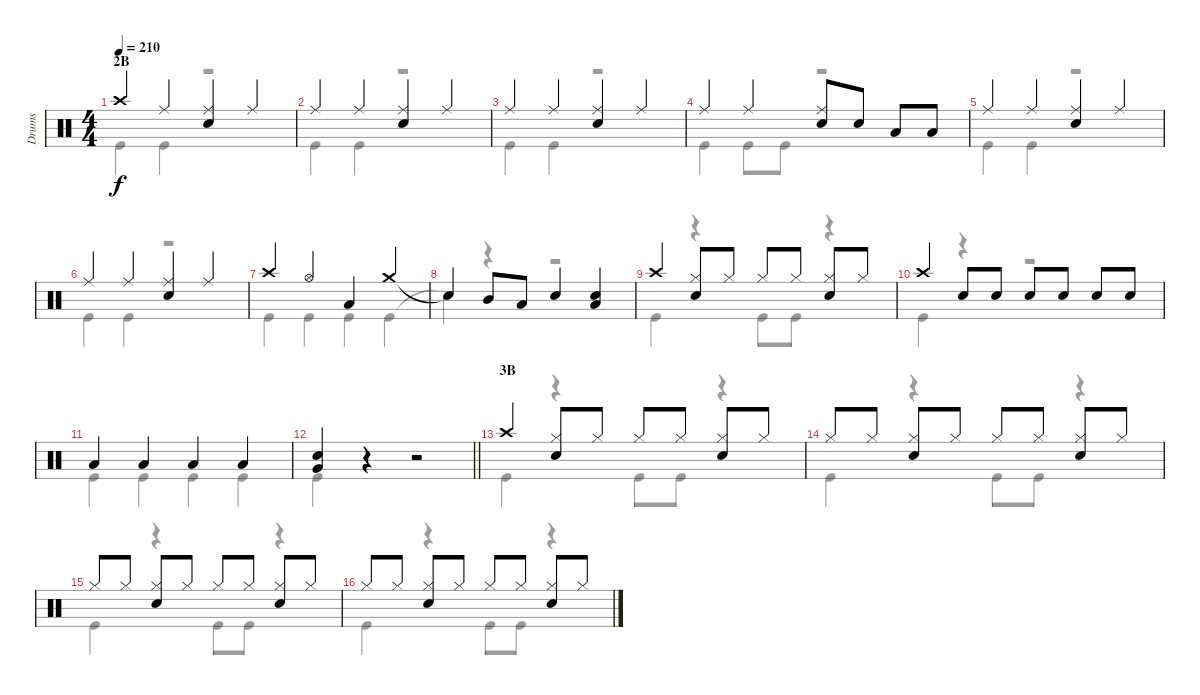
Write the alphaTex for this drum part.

\track ("Drums" "Drums") {instrument percussion}
\staff {score}
\articulation defaults
\voice
\ts (4 4)
\section ("" "2B")
\tempo 210
\clef neutral
\ks c "Crash high (hit)".4{dy f} "Ride (middle)".4
("Ride (middle)" "Snare (hit) 2").4 "Ride (middle)".4 |
"Ride (middle)".4 "Ride (middle)".4 ("Ride (middle)" "Snare (hit) 2").4 "Ride (middle)".4 |
"Ride (middle)".4 "Ride (middle)".4 ("Ride (middle)" "Snare (hit) 2").4 "Ride (middle)".4 |
"Ride (middle)".4 "Ride (middle)".4 ("Ride (middle)" "Snare (hit) 2").8 "Snare (hit) 2".8 "Low Tom (hit)".8 "Low Tom (hit)".8 |
"Ride (middle)".4 "Ride (middle)".4 ("Ride (middle)" "Snare (hit) 2").4 "Ride (middle)".4 |
"Ride (middle)".4 "Ride (middle)".4 ("Ride (middle)" "Snare (hit) 2").4 "Ride (middle)".4 |
"Crash high (hit)".4 "Hi-Hat (open)".4 "Low Tom (hit)".4 "Crash medium (hit)".4 |
"Snare (hit)"{t}.4 "Mid Tom (hit)".8 "Low Tom (hit)".8 "Snare (hit) 2".4 ("Snare (hit) 2" "Low Tom (hit)").4 |
"Crash high (hit)".4 ("Hi-Hat (closed)" "Snare (hit) 2").8 "Hi-Hat (closed)".8 "Hi-Hat (closed)".8 "Hi-Hat (closed)".8 ("Hi-Hat (closed)" "Snare (hit) 2").8 "Hi-Hat (closed)".8 |
"Crash high (hit)".4 "Snare (hit) 2".8 "Snare (hit) 2".8 "Snare (hit) 2".8 "Snare (hit) 2".8 "Snare (hit) 2".8 "Snare (hit) 2".8 |
"Low Tom (hit)".4 "Low Tom (hit)".4 "Low Tom (hit)".4 "Low Tom (hit)".4 |
\barLineRight lightlight
("Very Low Tom (hit)" "Snare (hit) 2").4 r.4 r.2 |
\section ("" "3B")
"Crash high (hit)".4 ("Hi-Hat (closed)" "Snare (hit) 2").8 "Hi-Hat (closed)".8 "Hi-Hat (closed)".8 "Hi-Hat (closed)".8 ("Hi-Hat (closed)" "Snare (hit) 2").8 "Hi-Hat (closed)".8 |
"Hi-Hat (closed)".8 "Hi-Hat (closed)".8 ("Hi-Hat (closed)" "Snare (hit) 2").8 "Hi-Hat (closed)".8 "Hi-Hat (closed)".8 "Hi-Hat (closed)".8 ("Hi-Hat (closed)" "Snare (hit) 2").8 "Hi-Hat (closed)".8 |
"Hi-Hat (closed)".8 "Hi-Hat (closed)".8 ("Hi-Hat (closed)" "Snare (hit) 2").8 "Hi-Hat (closed)".8 "Hi-Hat (closed)".8 "Hi-Hat (closed)".8 ("Hi-Hat (closed)" "Snare (hit) 2").8 "Hi-Hat (closed)".8 |
"Hi-Hat (closed)".8 "Hi-Hat (closed)".8 ("Hi-Hat (closed)" "Snare (hit) 2").8 "Hi-Hat (closed)".8 "Hi-Hat (closed)".8 "Hi-Hat (closed)".8 ("Hi-Hat (closed)" "Snare (hit) 2").8 "Hi-Hat (closed)".8
\voice
\clef neutral
\ottava regular
\simile none
\ks c "Kick (hit)".4{dy f} "Kick (hit)".4
r.2 |
"Kick (hit)".4 "Kick (hit)".4 r.2 |
"Kick (hit)".4 "Kick (hit)".4 r.2 |
"Kick (hit)".4 "Kick (hit)".8 "Kick (hit)".8 r.2 |
"Kick (hit)".4 "Kick (hit)".4 r.2 |
"Kick (hit)".4 "Kick (hit)".4 r.2 |
"Kick (hit)".4 "Kick (hit)".4 "Kick (hit)".4 "Kick (hit)".4 |
"Snare (hit)"{t}.4 r.4 r.2 |
"Kick (hit)".4 r.4 "Kick (hit)".8 "Kick (hit)".8 r.4 |
"Kick (hit)".4 r.4 r.2 |
"Kick (hit)".4 "Kick (hit)".4 "Kick (hit)".4 "Kick (hit)".4 |
\barLineRight lightlight "Kick (hit)".4
r.4 r.2 |
"Kick (hit)".4 r.4 "Kick (hit)".8 "Kick (hit)".8 r.4 |
"Kick (hit)".4 r.4 "Kick (hit)".8 "Kick (hit)".8 r.4 |
"Kick (hit)".4 r.4 "Kick (hit)".8 "Kick (hit)".8 r.4 |
"Kick (hit)".4 r.4 "Kick (hit)".8 "Kick (hit)".8 r.4
